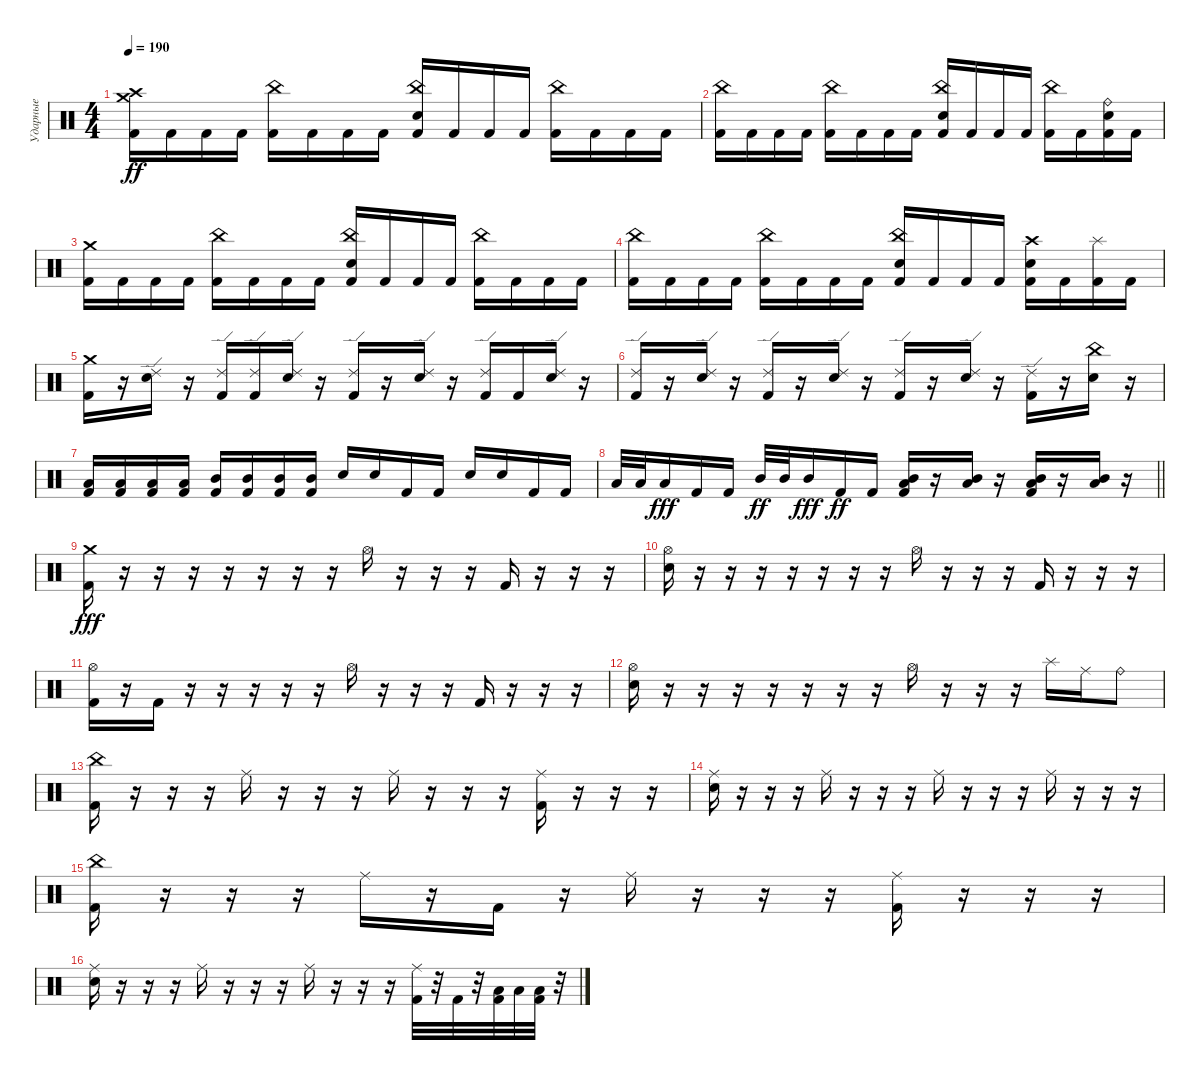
\track ("Ударные" "Ударные") {instrument percussion}
\staff {score}
\articulation defaults
\ts (4 4)
\tempo 190
\clef neutral
\ks c
("Crash medium (hit)" "Crash high (hit)" "Kick (hit) 2").16{dy ff} "Kick (hit) 2".16 "Kick (hit) 2".16 "Kick (hit) 2".16 ("China (hit)" "Kick (hit) 2").16 "Kick (hit) 2".16 "Kick (hit) 2".16 "Kick (hit) 2".16 ("China (hit)" "Electric Snare (hit)" "Kick (hit) 2").16 "Kick (hit) 2".16 "Kick (hit) 2".16 "Kick (hit) 2".16 ("China (hit)" "Kick (hit) 2").16 "Kick (hit) 2".16 "Kick (hit) 2".16 "Kick (hit) 2".16 |
("China (hit)" "Kick (hit) 2").16 "Kick (hit) 2".16 "Kick (hit) 2".16 "Kick (hit) 2".16 ("China (hit)" "Kick (hit) 2").16 "Kick (hit) 2".16 "Kick (hit) 2".16 "Kick (hit) 2".16 ("China (hit)" "Electric Snare (hit)" "Kick (hit) 2").16 "Kick (hit) 2".16 "Kick (hit) 2".16 "Kick (hit) 2".16 ("China (hit)" "Kick (hit) 2").16 "Kick (hit) 2".16 ("Ride (bell)" "Electric Snare (hit)" "Kick (hit) 2").16 "Kick (hit) 2".16 |
("Crash medium (hit)" "Kick (hit) 2").16 "Kick (hit) 2".16 "Kick (hit) 2".16 "Kick (hit) 2".16 ("China (hit)" "Kick (hit) 2").16 "Kick (hit) 2".16 "Kick (hit) 2".16 "Kick (hit) 2".16 ("China (hit)" "Electric Snare (hit)" "Kick (hit) 2").16 "Kick (hit) 2".16 "Kick (hit) 2".16 "Kick (hit) 2".16 ("China (hit)" "Kick (hit) 2").16 "Kick (hit) 2".16 "Kick (hit) 2".16 "Kick (hit) 2".16 |
("China (hit)" "Kick (hit) 2").16 "Kick (hit) 2".16 "Kick (hit) 2".16 "Kick (hit) 2".16 ("China (hit)" "Kick (hit) 2").16 "Kick (hit) 2".16 "Kick (hit) 2".16 "Kick (hit) 2".16 ("China (hit)" "Electric Snare (hit)" "Kick (hit) 2").16 "Kick (hit) 2".16 "Kick (hit) 2".16 "Kick (hit) 2".16 ("Crash high (hit)" "Electric Snare (hit)" "Kick (hit) 2").16 "Kick (hit) 2".16 ("Splash (hit)" "Kick (hit) 2").16 "Kick (hit) 2".16 |
("Crash medium (hit)" "Kick (hit) 2").16 r.16 ("Ride (edge) 2" "Electric Snare (hit)").16 r.16 ("Ride (edge) 2" "Kick (hit) 2").16 ("Ride (edge) 2" "Kick (hit) 2").16 ("Ride (edge) 2" "Electric Snare (hit)").16 r.16 ("Ride (edge) 2" "Kick (hit) 2").16 r.16 ("Ride (edge) 2" "Electric Snare (hit)").16 r.16 ("Ride (edge) 2" "Kick (hit) 2").16 "Kick (hit) 2".16 ("Ride (edge) 2" "Electric Snare (hit)").16 r.16 |
("Ride (edge) 2" "Kick (hit) 2").16 r.16 ("Ride (edge) 2" "Electric Snare (hit)").16 r.16 ("Ride (edge) 2" "Kick (hit) 2").16 r.16 ("Ride (edge) 2" "Electric Snare (hit)").16 r.16 ("Ride (edge) 2" "Kick (hit) 2").16 r.16 ("Ride (edge) 2" "Electric Snare (hit)").16 r.16 ("Ride (edge) 2" "Kick (hit) 2").16 r.16 ("China (hit)" "Electric Snare (hit)").16 r.16 |
("Low Tom (hit)" "Kick (hit) 2").16 ("Low Tom (hit)" "Kick (hit) 2").16 ("Low Tom (hit)" "Kick (hit) 2").16 ("Low Tom (hit)" "Kick (hit) 2").16 ("Mid Tom (hit)" "Kick (hit) 2").16 ("Mid Tom (hit)" "Kick (hit) 2").16 ("Mid Tom (hit)" "Kick (hit) 2").16 ("Mid Tom (hit)" "Kick (hit) 2").16 "Electric Snare (hit)".16 "Electric Snare (hit)".16 "Kick (hit) 2".16 "Kick (hit) 2".16 "Electric Snare (hit)".16 "Electric Snare (hit)".16 "Kick (hit) 2".16 "Kick (hit) 2".16 |
\barLineRight lightlight "Low Tom (hit)".32 "Low Tom (hit)".32 "Low Tom (hit)".16{dy fff} "Kick (hit) 2".16 "Kick (hit) 2".16 "Mid Tom (hit)".32{dy ff} "Mid Tom (hit)".32 "Mid Tom (hit)".16{dy fff} "Kick (hit) 2".16{dy ff} "Kick (hit) 2".16
("Mid Tom (hit)" "Low Tom (hit)" "Kick (hit) 2").16 r.16 ("Mid Tom (hit)" "Low Tom (hit)").16 r.16 ("Mid Tom (hit)" "Low Tom (hit)" "Kick (hit) 2").16 r.16 ("Low Tom (hit)" "Mid Tom (hit)").16 r.16 |
("Crash medium (hit)" "Kick (hit) 2").16{dy fff} r.16 r.16 r.16 r.16 r.16 r.16 r.16 "Hi-Hat (open)".16 r.16 r.16 r.16 "Kick (hit) 2".16 r.16 r.16 r.16 |
("Hi-Hat (open)" "Electric Snare (hit)").16 r.16 r.16 r.16 r.16 r.16 r.16 r.16 "Hi-Hat (open)".16 r.16 r.16 r.16 "Kick (hit) 2".16 r.16 r.16 r.16 |
("Hi-Hat (open)" "Kick (hit) 2").16 r.16 "Kick (hit) 2".16 r.16 r.16 r.16 r.16 r.16 "Hi-Hat (open)".16 r.16 r.16 r.16 "Kick (hit) 2".16 r.16 r.16 r.16 |
("Hi-Hat (open)" "Electric Snare (hit)").16 r.16 r.16 r.16 r.16 r.16 r.16 r.16 "Hi-Hat (open)".16 r.16 r.16 r.16 "Splash (hit)".16 "Ride (middle)".16 "Ride (bell)".8 |
("China (hit)" "Kick (hit) 2").16 r.16 r.16 r.16 "Ride (middle)".16 r.16 r.16 r.16 "Ride (middle)".16 r.16 r.16 r.16 ("Ride (middle)" "Kick (hit) 2").16 r.16 r.16 r.16 |
("Ride (middle)" "Electric Snare (hit)").16 r.16 r.16 r.16 "Ride (middle)".16 r.16 r.16 r.16 "Ride (middle)".16 r.16 r.16 r.16 "Ride (middle)".16 r.16 r.16 r.16 |
("China (hit)" "Kick (hit) 2").16 r.16 r.16 r.16 "Ride (middle)".16 r.16 "Kick (hit) 2".16 r.16 "Ride (middle)".16 r.16 r.16 r.16 ("Ride (middle)" "Kick (hit) 2").16 r.16 r.16 r.16 |
("Ride (middle)" "Electric Snare (hit)").16 r.16 r.16 r.16 "Ride (middle)".16 r.16 r.16 r.16 "Ride (middle)".16 r.16 r.16 r.16 ("Ride (middle)" "Kick (hit) 2").32 r.32 "Kick (hit) 2".32 r.32 ("Low Tom (hit)" "Kick (hit) 2").32 "Low Tom (hit)".32 ("Low Tom (hit)" "Kick (hit) 2").32 r.32
